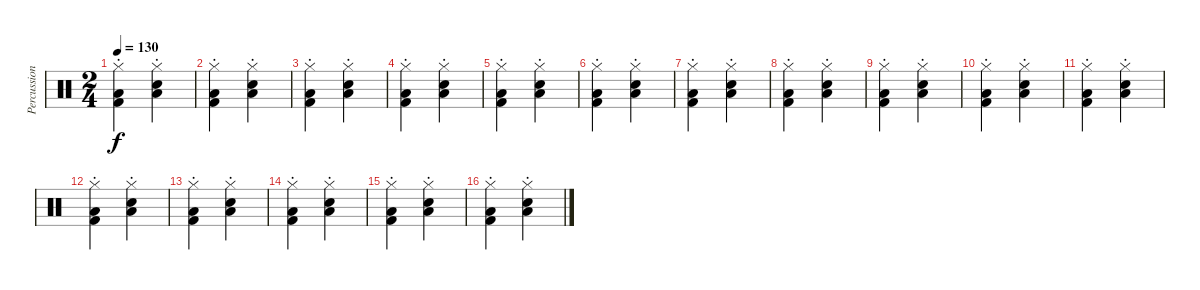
\track ("Percussion" "Percussion") {instrument percussion}
\staff {score}
\articulation defaults
\ts (2 4)
\tempo 130
\clef neutral
\ks c
("Hi-Hat (closed)"{st} "Kick (hit) 2"{st} "Low Floor Tom (hit)"{st}).4{dy f} ("Hi-Hat (closed)" "Snare (hit) 2"{st} "Low Floor Tom (hit)"{st}).4 |
("Hi-Hat (closed)"{st} "Kick (hit) 2"{st} "Low Floor Tom (hit)"{st}).4 ("Hi-Hat (closed)" "Snare (hit) 2"{st} "Low Floor Tom (hit)"{st}).4 |
("Hi-Hat (closed)"{st} "Kick (hit) 2"{st} "Low Floor Tom (hit)"{st}).4 ("Hi-Hat (closed)" "Snare (hit) 2"{st} "Low Floor Tom (hit)"{st}).4 |
("Hi-Hat (closed)"{st} "Kick (hit) 2"{st} "Low Floor Tom (hit)"{st}).4 ("Hi-Hat (closed)" "Snare (hit) 2"{st} "Low Floor Tom (hit)"{st}).4 |
("Hi-Hat (closed)"{st} "Kick (hit) 2"{st} "Low Floor Tom (hit)"{st}).4 ("Hi-Hat (closed)" "Snare (hit) 2"{st} "Low Floor Tom (hit)"{st}).4 |
("Hi-Hat (closed)"{st} "Kick (hit) 2"{st} "Low Floor Tom (hit)"{st}).4 ("Hi-Hat (closed)" "Snare (hit) 2"{st} "Low Floor Tom (hit)"{st}).4 |
("Hi-Hat (closed)"{st} "Kick (hit) 2"{st} "Low Floor Tom (hit)"{st}).4 ("Hi-Hat (closed)" "Snare (hit) 2"{st} "Low Floor Tom (hit)"{st}).4 |
("Hi-Hat (closed)"{st} "Kick (hit) 2"{st} "Low Floor Tom (hit)"{st}).4 ("Hi-Hat (closed)" "Snare (hit) 2"{st} "Low Floor Tom (hit)"{st}).4 |
("Hi-Hat (closed)"{st} "Kick (hit) 2"{st} "Low Floor Tom (hit)"{st}).4 ("Hi-Hat (closed)" "Snare (hit) 2"{st} "Low Floor Tom (hit)"{st}).4 |
("Hi-Hat (closed)"{st} "Kick (hit) 2"{st} "Low Floor Tom (hit)"{st}).4 ("Hi-Hat (closed)" "Snare (hit) 2"{st} "Low Floor Tom (hit)"{st}).4 |
("Hi-Hat (closed)"{st} "Kick (hit) 2"{st} "Low Floor Tom (hit)"{st}).4 ("Hi-Hat (closed)" "Snare (hit) 2"{st} "Low Floor Tom (hit)"{st}).4 |
("Hi-Hat (closed)"{st} "Kick (hit) 2"{st} "Low Floor Tom (hit)"{st}).4 ("Hi-Hat (closed)" "Snare (hit) 2"{st} "Low Floor Tom (hit)"{st}).4 |
("Hi-Hat (closed)"{st} "Kick (hit) 2"{st} "Low Floor Tom (hit)"{st}).4 ("Hi-Hat (closed)" "Snare (hit) 2"{st} "Low Floor Tom (hit)"{st}).4 |
("Hi-Hat (closed)"{st} "Kick (hit) 2"{st} "Low Floor Tom (hit)"{st}).4 ("Hi-Hat (closed)" "Snare (hit) 2"{st} "Low Floor Tom (hit)"{st}).4 |
("Hi-Hat (closed)"{st} "Kick (hit) 2"{st} "Low Floor Tom (hit)"{st}).4 ("Hi-Hat (closed)" "Snare (hit) 2"{st} "Low Floor Tom (hit)"{st}).4 |
("Hi-Hat (closed)"{st} "Kick (hit) 2"{st} "Low Floor Tom (hit)"{st}).4 ("Hi-Hat (closed)" "Snare (hit) 2"{st} "Low Floor Tom (hit)"{st}).4
